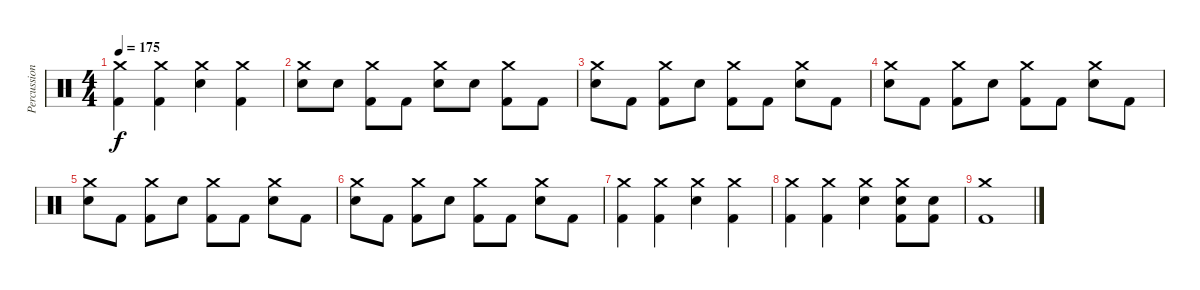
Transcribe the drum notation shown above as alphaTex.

\track ("Percussions" "Percussion") {instrument percussion}
\staff {score}
\articulation defaults
\ts (4 4)
\tempo 175
\clef neutral
\ks c
("Crash medium (hit)" "Kick (hit) 2").4{dy f} ("Crash medium (hit)" "Kick (hit) 2").4 ("Crash medium (hit)" "Snare (hit) 2").4 ("Crash medium (hit)" "Kick (hit) 2").4 |
("Crash medium (hit)" "Snare (hit) 2").8 "Snare (hit) 2".8 ("Crash medium (hit)" "Kick (hit) 2").8 "Kick (hit) 2".8 ("Crash medium (hit)" "Snare (hit) 2").8 "Snare (hit) 2".8 ("Crash medium (hit)" "Kick (hit) 2").8 "Kick (hit) 2".8 |
("Crash medium (hit)" "Snare (hit) 2").8 "Kick (hit) 2".8 ("Crash medium (hit)" "Kick (hit) 2").8 "Snare (hit) 2".8 ("Crash medium (hit)" "Kick (hit) 2").8 "Kick (hit) 2".8 ("Crash medium (hit)" "Snare (hit) 2").8 "Kick (hit) 2".8 |
("Crash medium (hit)" "Snare (hit) 2").8 "Kick (hit) 2".8 ("Crash medium (hit)" "Kick (hit) 2").8 "Snare (hit) 2".8 ("Crash medium (hit)" "Kick (hit) 2").8 "Kick (hit) 2".8 ("Crash medium (hit)" "Snare (hit) 2").8 "Kick (hit) 2".8 |
("Crash medium (hit)" "Snare (hit) 2").8 "Kick (hit) 2".8 ("Crash medium (hit)" "Kick (hit) 2").8 "Snare (hit) 2".8 ("Crash medium (hit)" "Kick (hit) 2").8 "Kick (hit) 2".8 ("Crash medium (hit)" "Snare (hit) 2").8 "Kick (hit) 2".8 |
("Crash medium (hit)" "Snare (hit) 2").8 "Kick (hit) 2".8 ("Crash medium (hit)" "Kick (hit) 2").8 "Snare (hit) 2".8 ("Crash medium (hit)" "Kick (hit) 2").8 "Kick (hit) 2".8 ("Crash medium (hit)" "Snare (hit) 2").8 "Kick (hit) 2".8 |
("Crash medium (hit)" "Kick (hit) 2").4 ("Crash medium (hit)" "Kick (hit) 2").4 ("Crash medium (hit)" "Snare (hit) 2").4 ("Crash medium (hit)" "Kick (hit) 2").4 |
("Crash medium (hit)" "Kick (hit) 2").4 ("Crash medium (hit)" "Kick (hit) 2").4 ("Crash medium (hit)" "Snare (hit) 2").4 ("Crash medium (hit)" "Snare (hit) 2" "Kick (hit) 2").8 ("Snare (hit) 2" "Kick (hit) 2").8 |
("Crash medium (hit)" "Kick (hit) 2").1
